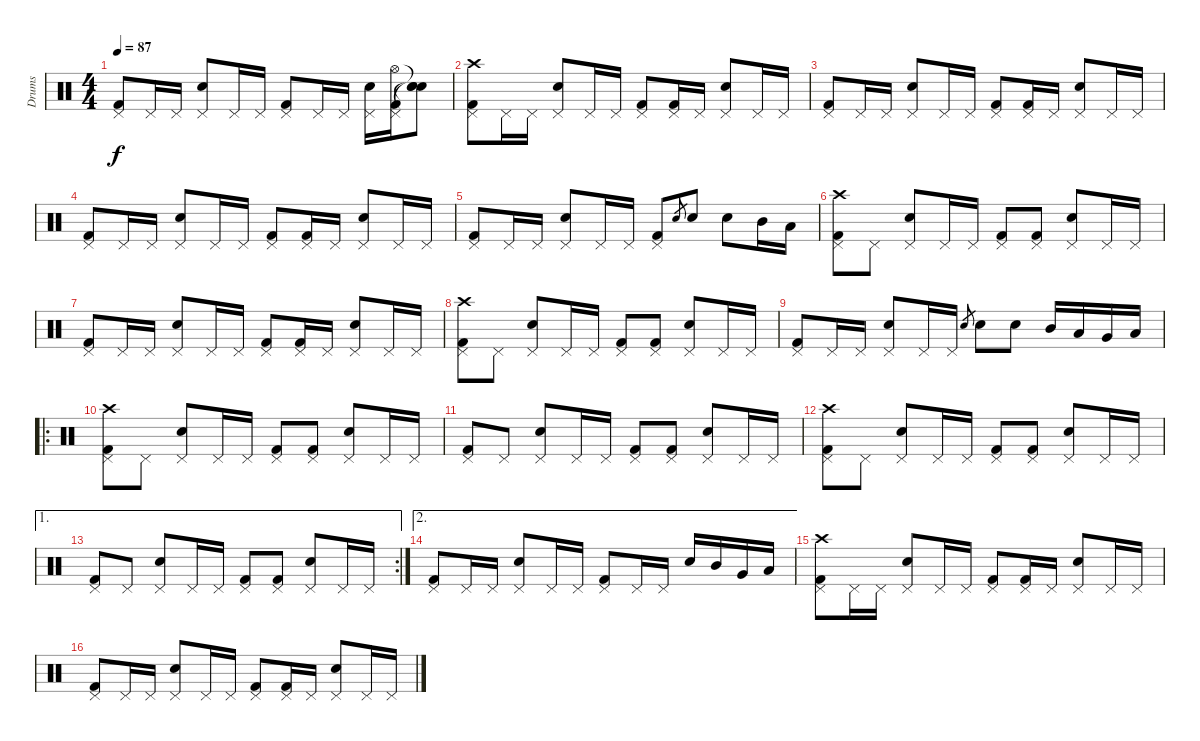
\track ("Drums" "Drums") {instrument percussion}
\staff {score}
\articulation defaults
\ts (4 4)
\tempo 87
\clef neutral
\ks c
("Kick (hit) 2" "Pedal Hi-Hat (hit)").8{dy f} "Pedal Hi-Hat (hit)".16 "Pedal Hi-Hat (hit)".16 ("Snare (hit) 2" "Pedal Hi-Hat (hit)").8 "Pedal Hi-Hat (hit)".16 "Pedal Hi-Hat (hit)".16 ("Kick (hit) 2" "Pedal Hi-Hat (hit)").8 "Pedal Hi-Hat (hit)".16 "Pedal Hi-Hat (hit)".16 ("Snare (hit) 2" "Pedal Hi-Hat (hit)").16 ("Kick (hit) 2" "Pedal Hi-Hat (hit)" "Hi-Hat (open)").16 ("Snare (hit)"{t} "Snare (hit)"{t} "Snare (hit)"{t}).8 |
("Kick (hit) 2" "Pedal Hi-Hat (hit)" "Crash high (hit)").8 "Pedal Hi-Hat (hit)".16 "Pedal Hi-Hat (hit)".16 ("Snare (hit) 2" "Pedal Hi-Hat (hit)").8 "Pedal Hi-Hat (hit)".16 "Pedal Hi-Hat (hit)".16 ("Kick (hit) 2" "Pedal Hi-Hat (hit)").8 ("Kick (hit) 2" "Pedal Hi-Hat (hit)").16 "Pedal Hi-Hat (hit)".16 ("Snare (hit) 2" "Pedal Hi-Hat (hit)").8 "Pedal Hi-Hat (hit)".16 "Pedal Hi-Hat (hit)".16 |
("Kick (hit) 2" "Pedal Hi-Hat (hit)").8 "Pedal Hi-Hat (hit)".16 "Pedal Hi-Hat (hit)".16 ("Snare (hit) 2" "Pedal Hi-Hat (hit)").8 "Pedal Hi-Hat (hit)".16 "Pedal Hi-Hat (hit)".16 ("Kick (hit) 2" "Pedal Hi-Hat (hit)").8 ("Kick (hit) 2" "Pedal Hi-Hat (hit)").16 "Pedal Hi-Hat (hit)".16 ("Snare (hit) 2" "Pedal Hi-Hat (hit)").8 "Pedal Hi-Hat (hit)".16 "Pedal Hi-Hat (hit)".16 |
("Kick (hit) 2" "Pedal Hi-Hat (hit)").8 "Pedal Hi-Hat (hit)".16 "Pedal Hi-Hat (hit)".16 ("Snare (hit) 2" "Pedal Hi-Hat (hit)").8 "Pedal Hi-Hat (hit)".16 "Pedal Hi-Hat (hit)".16 ("Kick (hit) 2" "Pedal Hi-Hat (hit)").8 ("Kick (hit) 2" "Pedal Hi-Hat (hit)").16 "Pedal Hi-Hat (hit)".16 ("Snare (hit) 2" "Pedal Hi-Hat (hit)").8 "Pedal Hi-Hat (hit)".16 "Pedal Hi-Hat (hit)".16 |
("Kick (hit) 2" "Pedal Hi-Hat (hit)").8 "Pedal Hi-Hat (hit)".16 "Pedal Hi-Hat (hit)".16 ("Snare (hit) 2" "Pedal Hi-Hat (hit)").8 "Pedal Hi-Hat (hit)".16 "Pedal Hi-Hat (hit)".16 ("Kick (hit) 2" "Pedal Hi-Hat (hit)").8 "Snare (hit) 2".8{gr} "Snare (hit) 2".8 "Snare (hit) 2".8 "Mid Tom (hit)".16 "Low Tom (hit)".16 |
("Kick (hit) 2" "Pedal Hi-Hat (hit)" "Crash high (hit)").8 "Pedal Hi-Hat (hit)".8 ("Snare (hit) 2" "Pedal Hi-Hat (hit)").8 "Pedal Hi-Hat (hit)".16 "Pedal Hi-Hat (hit)".16 ("Kick (hit) 2" "Pedal Hi-Hat (hit)").8 ("Kick (hit) 2" "Pedal Hi-Hat (hit)").8 ("Snare (hit) 2" "Pedal Hi-Hat (hit)").8 "Pedal Hi-Hat (hit)".16 "Pedal Hi-Hat (hit)".16 |
("Kick (hit) 2" "Pedal Hi-Hat (hit)").8 "Pedal Hi-Hat (hit)".16 "Pedal Hi-Hat (hit)".16 ("Snare (hit) 2" "Pedal Hi-Hat (hit)").8 "Pedal Hi-Hat (hit)".16 "Pedal Hi-Hat (hit)".16 ("Kick (hit) 2" "Pedal Hi-Hat (hit)").8 ("Kick (hit) 2" "Pedal Hi-Hat (hit)").16 "Pedal Hi-Hat (hit)".16 ("Snare (hit) 2" "Pedal Hi-Hat (hit)").8 "Pedal Hi-Hat (hit)".16 "Pedal Hi-Hat (hit)".16 |
("Kick (hit) 2" "Pedal Hi-Hat (hit)" "Crash high (hit)").8 "Pedal Hi-Hat (hit)".8 ("Snare (hit) 2" "Pedal Hi-Hat (hit)").8 "Pedal Hi-Hat (hit)".16 "Pedal Hi-Hat (hit)".16 ("Kick (hit) 2" "Pedal Hi-Hat (hit)").8 ("Kick (hit) 2" "Pedal Hi-Hat (hit)").8 ("Snare (hit) 2" "Pedal Hi-Hat (hit)").8 "Pedal Hi-Hat (hit)".16 "Pedal Hi-Hat (hit)".16 |
("Kick (hit) 2" "Pedal Hi-Hat (hit)").8 "Pedal Hi-Hat (hit)".16 "Pedal Hi-Hat (hit)".16 ("Snare (hit) 2" "Pedal Hi-Hat (hit)").8 "Pedal Hi-Hat (hit)".16 "Pedal Hi-Hat (hit)".16 "Snare (hit) 2".8{gr} "Snare (hit) 2".8 "Snare (hit) 2".8 "Mid Tom (hit)".16 "Low Tom (hit)".16 "Very Low Tom (hit)".16 "Low Floor Tom (hit)".16 |
\ro
("Kick (hit) 2" "Pedal Hi-Hat (hit)" "Crash high (hit)").8 "Pedal Hi-Hat (hit)".8 ("Snare (hit) 2" "Pedal Hi-Hat (hit)").8 "Pedal Hi-Hat (hit)".16 "Pedal Hi-Hat (hit)".16 ("Kick (hit) 2" "Pedal Hi-Hat (hit)").8 ("Kick (hit) 2" "Pedal Hi-Hat (hit)").8 ("Snare (hit) 2" "Pedal Hi-Hat (hit)").8 "Pedal Hi-Hat (hit)".16 "Pedal Hi-Hat (hit)".16 |
("Kick (hit) 2" "Pedal Hi-Hat (hit)").8 "Pedal Hi-Hat (hit)".8 ("Snare (hit) 2" "Pedal Hi-Hat (hit)").8 "Pedal Hi-Hat (hit)".16 "Pedal Hi-Hat (hit)".16 ("Kick (hit) 2" "Pedal Hi-Hat (hit)").8 ("Kick (hit) 2" "Pedal Hi-Hat (hit)").8 ("Snare (hit) 2" "Pedal Hi-Hat (hit)").8 "Pedal Hi-Hat (hit)".16 "Pedal Hi-Hat (hit)".16 |
("Kick (hit) 2" "Pedal Hi-Hat (hit)" "Crash high (hit)").8 "Pedal Hi-Hat (hit)".8 ("Snare (hit) 2" "Pedal Hi-Hat (hit)").8 "Pedal Hi-Hat (hit)".16 "Pedal Hi-Hat (hit)".16 ("Kick (hit) 2" "Pedal Hi-Hat (hit)").8 ("Kick (hit) 2" "Pedal Hi-Hat (hit)").8 ("Snare (hit) 2" "Pedal Hi-Hat (hit)").8 "Pedal Hi-Hat (hit)".16 "Pedal Hi-Hat (hit)".16 |
\ae 1
\rc 2
("Kick (hit) 2" "Pedal Hi-Hat (hit)").8 "Pedal Hi-Hat (hit)".8 ("Snare (hit) 2" "Pedal Hi-Hat (hit)").8 "Pedal Hi-Hat (hit)".16 "Pedal Hi-Hat (hit)".16 ("Kick (hit) 2" "Pedal Hi-Hat (hit)").8 ("Kick (hit) 2" "Pedal Hi-Hat (hit)").8 ("Snare (hit) 2" "Pedal Hi-Hat (hit)").8 "Pedal Hi-Hat (hit)".16 "Pedal Hi-Hat (hit)".16 |
\ae 2
("Kick (hit) 2" "Pedal Hi-Hat (hit)").8 "Pedal Hi-Hat (hit)".16 "Pedal Hi-Hat (hit)".16 ("Snare (hit) 2" "Pedal Hi-Hat (hit)").8 "Pedal Hi-Hat (hit)".16 "Pedal Hi-Hat (hit)".16 ("Kick (hit) 2" "Pedal Hi-Hat (hit)").8 "Pedal Hi-Hat (hit)".16 "Pedal Hi-Hat (hit)".16 "Snare (hit) 2".16 "Mid Tom (hit)".16 "Very Low Tom (hit)".16 "Low Floor Tom (hit)".16 |
("Kick (hit) 2" "Pedal Hi-Hat (hit)" "Crash high (hit)").8 "Pedal Hi-Hat (hit)".16 "Pedal Hi-Hat (hit)".16 ("Snare (hit) 2" "Pedal Hi-Hat (hit)").8 "Pedal Hi-Hat (hit)".16 "Pedal Hi-Hat (hit)".16 ("Kick (hit) 2" "Pedal Hi-Hat (hit)").8 ("Kick (hit) 2" "Pedal Hi-Hat (hit)").16 "Pedal Hi-Hat (hit)".16 ("Snare (hit) 2" "Pedal Hi-Hat (hit)").8 "Pedal Hi-Hat (hit)".16 "Pedal Hi-Hat (hit)".16 |
("Kick (hit) 2" "Pedal Hi-Hat (hit)").8 "Pedal Hi-Hat (hit)".16 "Pedal Hi-Hat (hit)".16 ("Snare (hit) 2" "Pedal Hi-Hat (hit)").8 "Pedal Hi-Hat (hit)".16 "Pedal Hi-Hat (hit)".16 ("Kick (hit) 2" "Pedal Hi-Hat (hit)").8 ("Kick (hit) 2" "Pedal Hi-Hat (hit)").16 "Pedal Hi-Hat (hit)".16 ("Snare (hit) 2" "Pedal Hi-Hat (hit)").8 "Pedal Hi-Hat (hit)".16 "Pedal Hi-Hat (hit)".16
